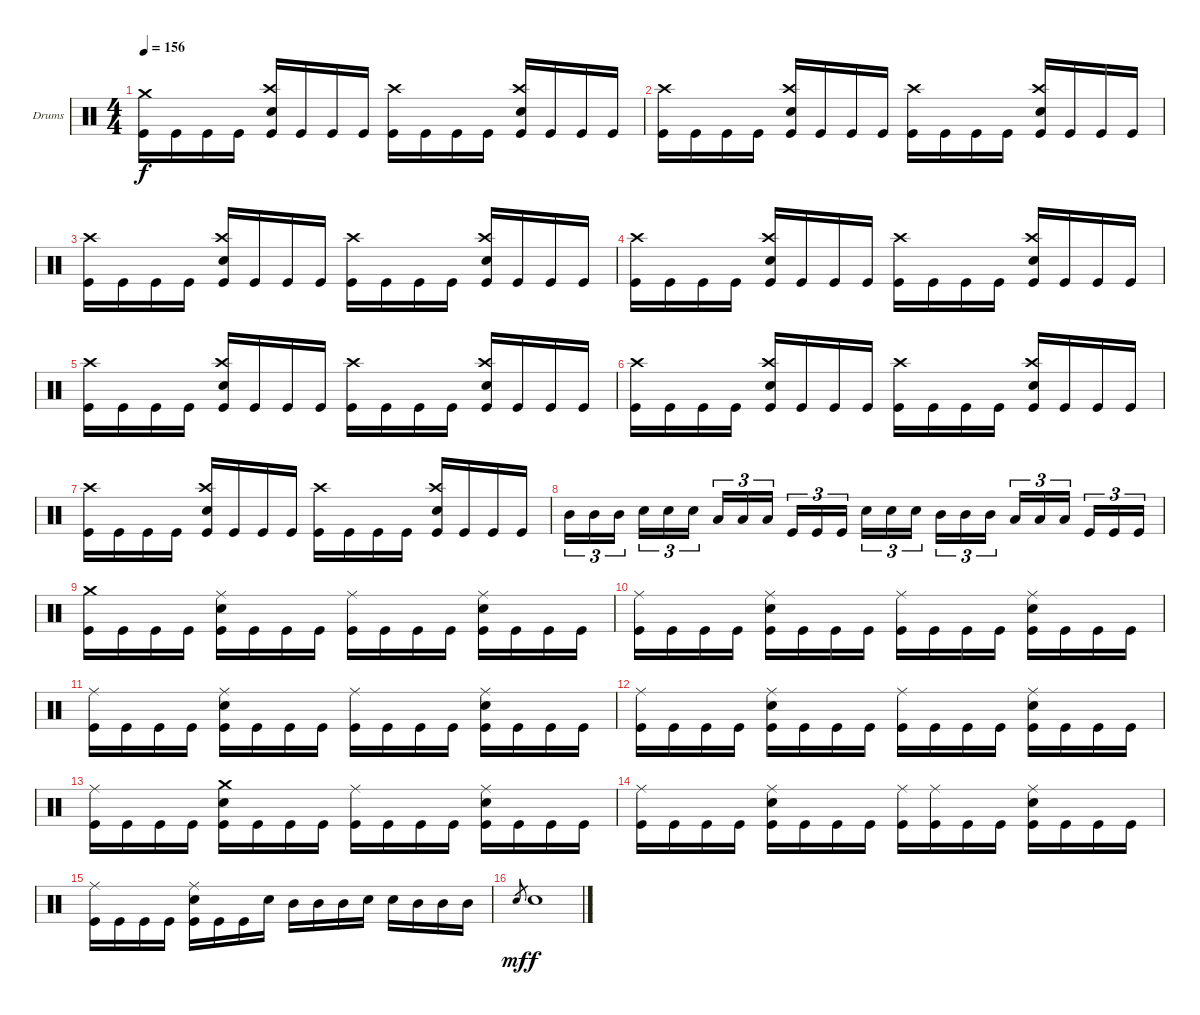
\bracketExtendMode groupsimilarinstruments
\firstSystemTrackNameOrientation horizontal
\otherSystemsTrackNameOrientation horizontal
\track ("Drumkit" "Drums") {instrument percussion}
\staff {score}
\articulation defaults
\ts (4 4)
\tempo 156
\clef neutral
\ks c
("Crash medium (hit)" "Kick (hit)").16{dy f} "Kick (hit)".16 "Kick (hit)".16 "Kick (hit)".16 ("Crash high (hit)" "Snare (hit) 2" "Kick (hit)").16 "Kick (hit)".16 "Kick (hit)".16 "Kick (hit)".16 ("Crash high (hit)" "Kick (hit)").16 "Kick (hit)".16 "Kick (hit)".16 "Kick (hit)".16 ("Crash high (hit)" "Snare (hit) 2" "Kick (hit)").16 "Kick (hit)".16 "Kick (hit)".16 "Kick (hit)".16 |
("Crash high (hit)" "Kick (hit)").16 "Kick (hit)".16 "Kick (hit)".16 "Kick (hit)".16 ("Crash high (hit)" "Snare (hit) 2" "Kick (hit)").16 "Kick (hit)".16 "Kick (hit)".16 "Kick (hit)".16 ("Crash high (hit)" "Kick (hit)").16 "Kick (hit)".16 "Kick (hit)".16 "Kick (hit)".16 ("Crash high (hit)" "Snare (hit) 2" "Kick (hit)").16 "Kick (hit)".16 "Kick (hit)".16 "Kick (hit)".16 |
("Crash high (hit)" "Kick (hit)").16 "Kick (hit)".16 "Kick (hit)".16 "Kick (hit)".16 ("Crash high (hit)" "Snare (hit) 2" "Kick (hit)").16 "Kick (hit)".16 "Kick (hit)".16 "Kick (hit)".16 ("Crash high (hit)" "Kick (hit)").16 "Kick (hit)".16 "Kick (hit)".16 "Kick (hit)".16 ("Crash high (hit)" "Snare (hit) 2" "Kick (hit)").16 "Kick (hit)".16 "Kick (hit)".16 "Kick (hit)".16 |
("Crash high (hit)" "Kick (hit)").16 "Kick (hit)".16 "Kick (hit)".16 "Kick (hit)".16 ("Crash high (hit)" "Snare (hit) 2" "Kick (hit)").16 "Kick (hit)".16 "Kick (hit)".16 "Kick (hit)".16 ("Crash high (hit)" "Kick (hit)").16 "Kick (hit)".16 "Kick (hit)".16 "Kick (hit)".16 ("Crash high (hit)" "Snare (hit) 2" "Kick (hit)").16 "Kick (hit)".16 "Kick (hit)".16 "Kick (hit)".16 |
("Crash high (hit)" "Kick (hit)").16 "Kick (hit)".16 "Kick (hit)".16 "Kick (hit)".16 ("Crash high (hit)" "Snare (hit) 2" "Kick (hit)").16 "Kick (hit)".16 "Kick (hit)".16 "Kick (hit)".16 ("Crash high (hit)" "Kick (hit)").16 "Kick (hit)".16 "Kick (hit)".16 "Kick (hit)".16 ("Crash high (hit)" "Snare (hit) 2" "Kick (hit)").16 "Kick (hit)".16 "Kick (hit)".16 "Kick (hit)".16 |
("Crash high (hit)" "Kick (hit)").16 "Kick (hit)".16 "Kick (hit)".16 "Kick (hit)".16 ("Crash high (hit)" "Snare (hit) 2" "Kick (hit)").16 "Kick (hit)".16 "Kick (hit)".16 "Kick (hit)".16 ("Crash high (hit)" "Kick (hit)").16 "Kick (hit)".16 "Kick (hit)".16 "Kick (hit)".16 ("Crash high (hit)" "Snare (hit) 2" "Kick (hit)").16 "Kick (hit)".16 "Kick (hit)".16 "Kick (hit)".16 |
("Crash high (hit)" "Kick (hit)").16 "Kick (hit)".16 "Kick (hit)".16 "Kick (hit)".16 ("Crash high (hit)" "Snare (hit) 2" "Kick (hit)").16 "Kick (hit)".16 "Kick (hit)".16 "Kick (hit)".16 ("Crash high (hit)" "Kick (hit)").16 "Kick (hit)".16 "Kick (hit)".16 "Kick (hit)".16 ("Crash high (hit)" "Snare (hit) 2" "Kick (hit)").16 "Kick (hit)".16 "Kick (hit)".16 "Kick (hit)".16 |
"Mid Tom (hit)".16{tu (3 2)} "Mid Tom (hit)".16{tu (3 2)} "Mid Tom (hit)".16{tu (3 2)} "Snare (hit) 2".16{tu (3 2)} "Snare (hit) 2".16{tu (3 2)} "Snare (hit) 2".16{tu (3 2)} "Low Tom (hit)".16{tu (3 2)} "Low Tom (hit)".16{tu (3 2)} "Low Tom (hit)".16{tu (3 2)} "Kick (hit)".16{tu (3 2)} "Kick (hit)".16{tu (3 2)} "Kick (hit)".16{tu (3 2)} "Snare (hit) 2".16{tu (3 2)} "Snare (hit) 2".16{tu (3 2)} "Snare (hit) 2".16{tu (3 2)} "Mid Tom (hit)".16{tu (3 2)} "Mid Tom (hit)".16{tu (3 2)} "Mid Tom (hit)".16{tu (3 2)} "Low Tom (hit)".16{tu (3 2)} "Low Tom (hit)".16{tu (3 2)} "Low Tom (hit)".16{tu (3 2)} "Kick (hit)".16{tu (3 2)} "Kick (hit)".16{tu (3 2)} "Kick (hit)".16{tu (3 2)} |
("Crash medium (hit)" "Kick (hit)").16 "Kick (hit)".16 "Kick (hit)".16 "Kick (hit)".16 ("Ride (middle)" "Snare (hit) 2" "Kick (hit)").16 "Kick (hit)".16 "Kick (hit)".16 "Kick (hit)".16 ("Ride (middle)" "Kick (hit)").16 "Kick (hit)".16 "Kick (hit)".16 "Kick (hit)".16 ("Ride (middle)" "Snare (hit) 2" "Kick (hit)").16 "Kick (hit)".16 "Kick (hit)".16 "Kick (hit)".16 |
("Ride (middle)" "Kick (hit)").16 "Kick (hit)".16 "Kick (hit)".16 "Kick (hit)".16 ("Ride (middle)" "Snare (hit) 2" "Kick (hit)").16 "Kick (hit)".16 "Kick (hit)".16 "Kick (hit)".16 ("Ride (middle)" "Kick (hit)").16 "Kick (hit)".16 "Kick (hit)".16 "Kick (hit)".16 ("Ride (middle)" "Snare (hit) 2" "Kick (hit)").16 "Kick (hit)".16 "Kick (hit)".16 "Kick (hit)".16 |
("Ride (middle)" "Kick (hit)").16 "Kick (hit)".16 "Kick (hit)".16 "Kick (hit)".16 ("Ride (middle)" "Snare (hit) 2" "Kick (hit)").16 "Kick (hit)".16 "Kick (hit)".16 "Kick (hit)".16 ("Ride (middle)" "Kick (hit)").16 "Kick (hit)".16 "Kick (hit)".16 "Kick (hit)".16 ("Ride (middle)" "Snare (hit) 2" "Kick (hit)").16 "Kick (hit)".16 "Kick (hit)".16 "Kick (hit)".16 |
("Ride (middle)" "Kick (hit)").16 "Kick (hit)".16 "Kick (hit)".16 "Kick (hit)".16 ("Ride (middle)" "Snare (hit) 2" "Kick (hit)").16 "Kick (hit)".16 "Kick (hit)".16 "Kick (hit)".16 ("Ride (middle)" "Kick (hit)").16 "Kick (hit)".16 "Kick (hit)".16 "Kick (hit)".16 ("Ride (middle)" "Snare (hit) 2" "Kick (hit)").16 "Kick (hit)".16 "Kick (hit)".16 "Kick (hit)".16 |
("Ride (middle)" "Kick (hit)").16 "Kick (hit)".16 "Kick (hit)".16 "Kick (hit)".16 ("Crash medium (hit)" "Snare (hit) 2" "Kick (hit)").16 "Kick (hit)".16 "Kick (hit)".16 "Kick (hit)".16 ("Ride (middle)" "Kick (hit)").16 "Kick (hit)".16 "Kick (hit)".16 "Kick (hit)".16 ("Ride (middle)" "Snare (hit) 2" "Kick (hit)").16 "Kick (hit)".16 "Kick (hit)".16 "Kick (hit)".16 |
("Ride (middle)" "Kick (hit)").16 "Kick (hit)".16 "Kick (hit)".16 "Kick (hit)".16 ("Ride (middle)" "Snare (hit) 2" "Kick (hit)").16 "Kick (hit)".16 "Kick (hit)".16 "Kick (hit)".16 ("Ride (middle)" "Kick (hit)").16 ("Ride (middle)" "Kick (hit)").16 "Kick (hit)".16 "Kick (hit)".16 ("Ride (middle)" "Snare (hit) 2" "Kick (hit)").16 "Kick (hit)".16 "Kick (hit)".16 "Kick (hit)".16 |
("Ride (middle)" "Kick (hit)").16 "Kick (hit)".16 "Kick (hit)".16 "Kick (hit)".16 ("Ride (middle)" "Snare (hit) 2" "Kick (hit)").16 "Kick (hit)".16 "Kick (hit)".16 "Snare (hit) 2".16 "Mid Tom (hit)".16 "Mid Tom (hit)".16 "Mid Tom (hit)".16 "Snare (hit) 2".16 "Snare (hit) 2".16 "Mid Tom (hit)".16 "Mid Tom (hit)".16 "Mid Tom (hit)".16 |
"Snare (hit) 2".8{gr dy mf} "Snare (hit) 2".1{dy f}
